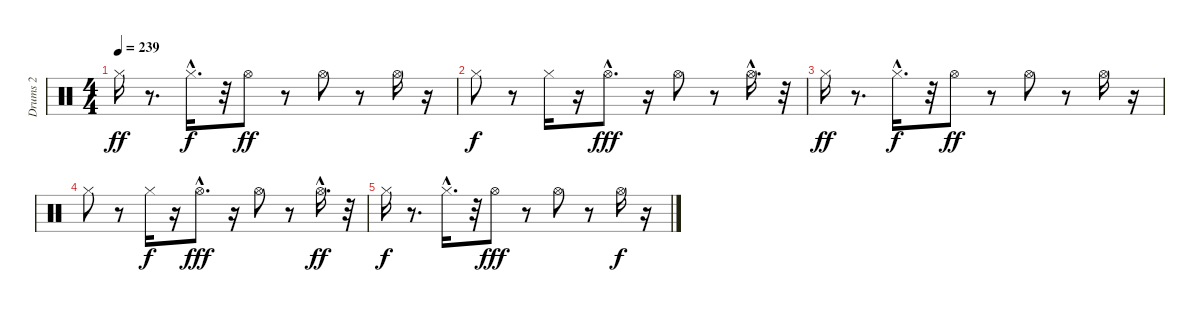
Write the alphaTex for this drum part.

\track ("Drums 2" "Drums 2") {instrument percussion}
\staff {score}
\articulation defaults
\ts (4 4)
\tempo 239
\clef neutral
\ks c "Hi-Hat (closed)".16{dy ff}
r.8{d} "Hi-Hat (closed)"{hac}.16{d dy f} r.32 "Hi-Hat (open)".8{dy ff} r.8 "Hi-Hat (open)".8 r.8 "Hi-Hat (open)".16 r.16 |
"Hi-Hat (closed)".8{dy f} r.8 "Hi-Hat (closed)".16 r.16 "Hi-Hat (open)"{hac}.8{d dy fff} r.16 "Hi-Hat (open)".8 r.8 "Hi-Hat (open)"{hac}.16{d} r.32 |
"Hi-Hat (closed)".16{dy ff} r.8{d} "Hi-Hat (closed)"{hac}.16{d dy f} r.32 "Hi-Hat (open)".8{dy ff} r.8 "Hi-Hat (open)".8 r.8 "Hi-Hat (open)".16 r.16 |
"Hi-Hat (closed)".8 r.8 "Hi-Hat (closed)".16{dy f} r.16 "Hi-Hat (open)"{hac}.8{d dy fff} r.16 "Hi-Hat (open)".8 r.8 "Hi-Hat (open)"{hac}.16{d dy ff} r.32 |
"Hi-Hat (closed)".16{dy f} r.8{d} "Hi-Hat (closed)"{hac}.16{d} r.32 "Hi-Hat (open)".8{dy fff} r.8 "Hi-Hat (open)".8 r.8 "Hi-Hat (open)".16{dy f} r.16
